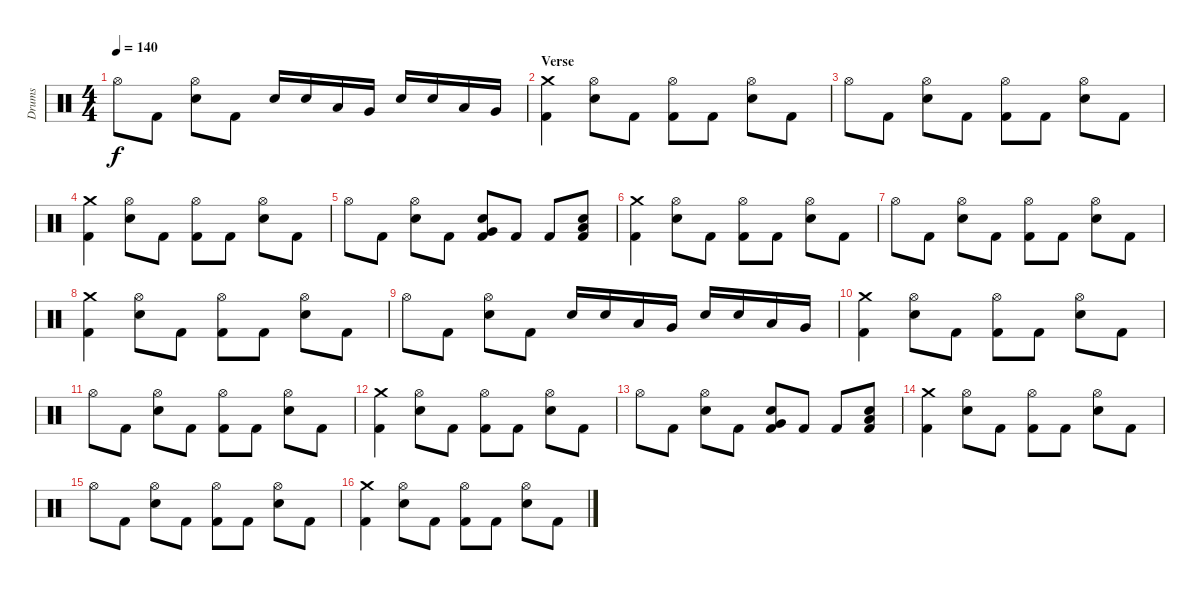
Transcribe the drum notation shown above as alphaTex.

\track ("Drums" "Drums") {instrument percussion}
\staff {score}
\articulation defaults
\ts (4 4)
\tempo 140
\clef neutral
\ks c "Hi-Hat (open)".8{dy f} "Kick (hit) 2".8
("Hi-Hat (open)" "Electric Snare (hit)").8 "Kick (hit) 2".8 "Electric Snare (hit)".16 "Electric Snare (hit)".16 "Low Tom (hit)".16 "Very Low Tom (hit)".16 "Electric Snare (hit)".16 "Electric Snare (hit)".16 "Low Tom (hit)".16 "Very Low Tom (hit)".16 |
\section ("" "Verse")
("Crash medium (hit)" "Kick (hit) 2").4 ("Hi-Hat (open)" "Electric Snare (hit)").8 "Kick (hit) 2".8 ("Hi-Hat (open)" "Kick (hit) 2").8 "Kick (hit) 2".8 ("Hi-Hat (open)" "Electric Snare (hit)").8 "Kick (hit) 2".8 |
"Hi-Hat (open)".8 "Kick (hit) 2".8 ("Hi-Hat (open)" "Electric Snare (hit)").8 "Kick (hit) 2".8 ("Hi-Hat (open)" "Kick (hit) 2").8 "Kick (hit) 2".8 ("Hi-Hat (open)" "Electric Snare (hit)").8 "Kick (hit) 2".8 |
("Crash medium (hit)" "Kick (hit) 2").4 ("Hi-Hat (open)" "Electric Snare (hit)").8 "Kick (hit) 2".8 ("Hi-Hat (open)" "Kick (hit) 2").8 "Kick (hit) 2".8 ("Hi-Hat (open)" "Electric Snare (hit)").8 "Kick (hit) 2".8 |
"Hi-Hat (open)".8 "Kick (hit) 2".8 ("Hi-Hat (open)" "Electric Snare (hit)").8 "Kick (hit) 2".8 ("Very Low Tom (hit)" "Electric Snare (hit)" "Kick (hit) 2").8 "Kick (hit) 2".8 "Kick (hit) 2".8 ("Low Tom (hit)" "Electric Snare (hit)" "Kick (hit) 2").8 |
("Crash medium (hit)" "Kick (hit) 2").4 ("Hi-Hat (open)" "Electric Snare (hit)").8 "Kick (hit) 2".8 ("Hi-Hat (open)" "Kick (hit) 2").8 "Kick (hit) 2".8 ("Hi-Hat (open)" "Electric Snare (hit)").8 "Kick (hit) 2".8 |
"Hi-Hat (open)".8 "Kick (hit) 2".8 ("Hi-Hat (open)" "Electric Snare (hit)").8 "Kick (hit) 2".8 ("Hi-Hat (open)" "Kick (hit) 2").8 "Kick (hit) 2".8 ("Hi-Hat (open)" "Electric Snare (hit)").8 "Kick (hit) 2".8 |
("Crash medium (hit)" "Kick (hit) 2").4 ("Hi-Hat (open)" "Electric Snare (hit)").8 "Kick (hit) 2".8 ("Hi-Hat (open)" "Kick (hit) 2").8 "Kick (hit) 2".8 ("Hi-Hat (open)" "Electric Snare (hit)").8 "Kick (hit) 2".8 |
"Hi-Hat (open)".8 "Kick (hit) 2".8 ("Hi-Hat (open)" "Electric Snare (hit)").8 "Kick (hit) 2".8 "Electric Snare (hit)".16 "Electric Snare (hit)".16 "Low Tom (hit)".16 "Very Low Tom (hit)".16 "Electric Snare (hit)".16 "Electric Snare (hit)".16 "Low Tom (hit)".16 "Very Low Tom (hit)".16 |
("Crash medium (hit)" "Kick (hit) 2").4 ("Hi-Hat (open)" "Electric Snare (hit)").8 "Kick (hit) 2".8 ("Hi-Hat (open)" "Kick (hit) 2").8 "Kick (hit) 2".8 ("Hi-Hat (open)" "Electric Snare (hit)").8 "Kick (hit) 2".8 |
"Hi-Hat (open)".8 "Kick (hit) 2".8 ("Hi-Hat (open)" "Electric Snare (hit)").8 "Kick (hit) 2".8 ("Hi-Hat (open)" "Kick (hit) 2").8 "Kick (hit) 2".8 ("Hi-Hat (open)" "Electric Snare (hit)").8 "Kick (hit) 2".8 |
("Crash medium (hit)" "Kick (hit) 2").4 ("Hi-Hat (open)" "Electric Snare (hit)").8 "Kick (hit) 2".8 ("Hi-Hat (open)" "Kick (hit) 2").8 "Kick (hit) 2".8 ("Hi-Hat (open)" "Electric Snare (hit)").8 "Kick (hit) 2".8 |
"Hi-Hat (open)".8 "Kick (hit) 2".8 ("Hi-Hat (open)" "Electric Snare (hit)").8 "Kick (hit) 2".8 ("Very Low Tom (hit)" "Electric Snare (hit)" "Kick (hit) 2").8 "Kick (hit) 2".8 "Kick (hit) 2".8 ("Low Tom (hit)" "Electric Snare (hit)" "Kick (hit) 2").8 |
("Crash medium (hit)" "Kick (hit) 2").4 ("Hi-Hat (open)" "Electric Snare (hit)").8 "Kick (hit) 2".8 ("Hi-Hat (open)" "Kick (hit) 2").8 "Kick (hit) 2".8 ("Hi-Hat (open)" "Electric Snare (hit)").8 "Kick (hit) 2".8 |
"Hi-Hat (open)".8 "Kick (hit) 2".8 ("Hi-Hat (open)" "Electric Snare (hit)").8 "Kick (hit) 2".8 ("Hi-Hat (open)" "Kick (hit) 2").8 "Kick (hit) 2".8 ("Hi-Hat (open)" "Electric Snare (hit)").8 "Kick (hit) 2".8 |
("Crash medium (hit)" "Kick (hit) 2").4 ("Hi-Hat (open)" "Electric Snare (hit)").8 "Kick (hit) 2".8 ("Hi-Hat (open)" "Kick (hit) 2").8 "Kick (hit) 2".8 ("Hi-Hat (open)" "Electric Snare (hit)").8 "Kick (hit) 2".8
